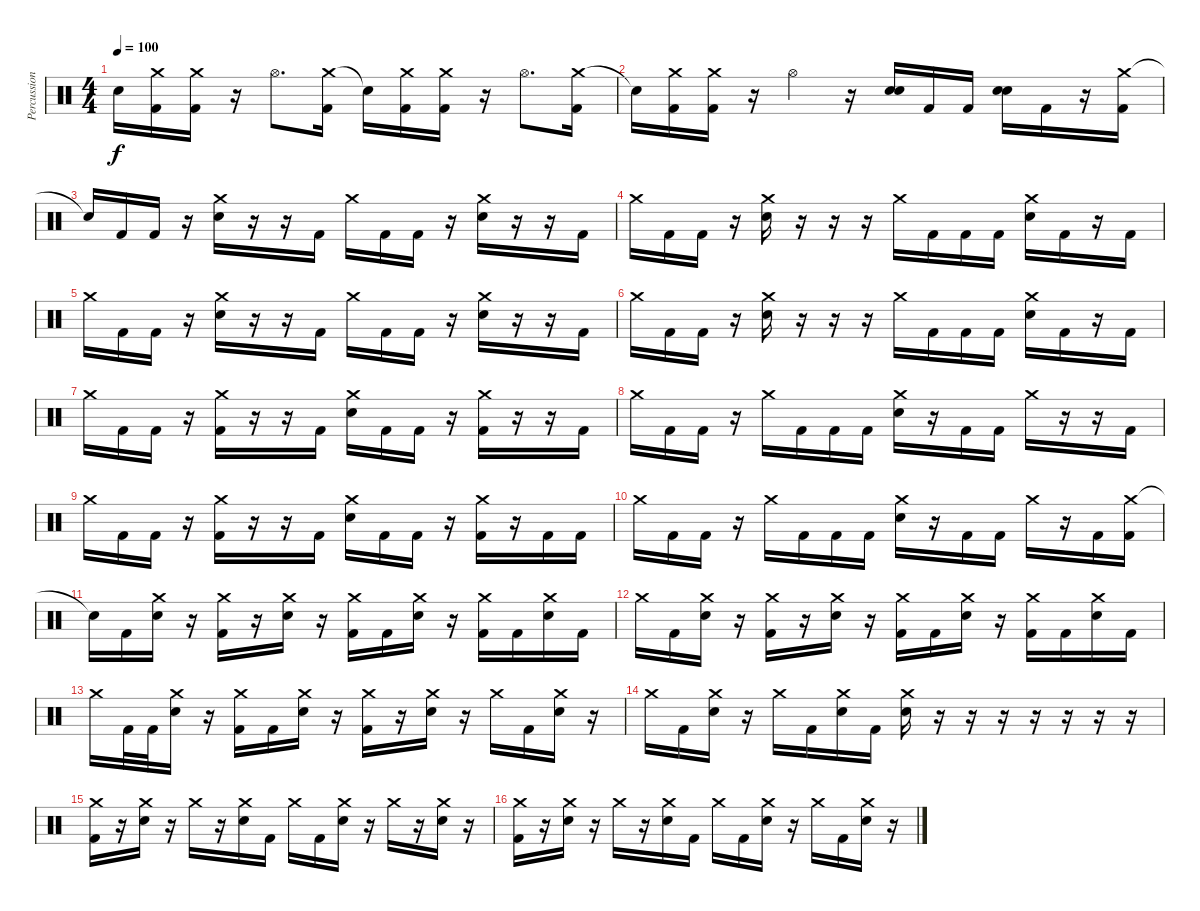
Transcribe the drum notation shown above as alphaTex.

\track ("Percussion" "Percussion") {instrument percussion}
\staff {score}
\articulation defaults
\ts (4 4)
\tempo 100
\clef neutral
\ks c "Snare (hit)"{t}.16{dy f}
("Crash medium (hit)" "Kick (hit) 2").16 ("Crash medium (hit)" "Kick (hit) 2").16 r.16 "Hi-Hat (open)".8{d} ("Crash medium (hit)" "Kick (hit) 2").16 "Snare (hit)"{t}.16 ("Crash medium (hit)" "Kick (hit) 2").16 ("Crash medium (hit)" "Kick (hit) 2").16 r.16 "Hi-Hat (open)".8{d} ("Crash medium (hit)" "Kick (hit) 2").16 |
"Snare (hit)"{t}.16 ("Crash medium (hit)" "Kick (hit) 2").16 ("Crash medium (hit)" "Kick (hit) 2").16 r.16 "Hi-Hat (open)".4 r.16 ("Electric Snare (hit)" "Electric Snare (hit)").16{bu 60} "Kick (hit) 2".16 "Kick (hit) 2".16 ("Electric Snare (hit)" "Electric Snare (hit)").16{bu 60} "Kick (hit) 2".16 r.16 ("Crash medium (hit)" "Kick (hit) 2").16 |
"Snare (hit)"{t}.16 "Kick (hit) 2".16 "Kick (hit) 2".16 r.16 ("Crash medium (hit)" "Electric Snare (hit)").16 r.16 r.16 "Kick (hit) 2".16 "Crash medium (hit)".16 "Kick (hit) 2".16 "Kick (hit) 2".16 r.16 ("Crash medium (hit)" "Electric Snare (hit)").16 r.16 r.16 "Kick (hit) 2".16 |
"Crash medium (hit)".16 "Kick (hit) 2".16 "Kick (hit) 2".16 r.16 ("Crash medium (hit)" "Electric Snare (hit)").16 r.16 r.16 r.16 "Crash medium (hit)".16 "Kick (hit) 2".16 "Kick (hit) 2".16 "Kick (hit) 2".16 ("Crash medium (hit)" "Electric Snare (hit)").16 "Kick (hit) 2".16 r.16 "Kick (hit) 2".16 |
"Crash medium (hit)".16 "Kick (hit) 2".16 "Kick (hit) 2".16 r.16 ("Crash medium (hit)" "Electric Snare (hit)").16 r.16 r.16 "Kick (hit) 2".16 "Crash medium (hit)".16 "Kick (hit) 2".16 "Kick (hit) 2".16 r.16 ("Crash medium (hit)" "Electric Snare (hit)").16 r.16 r.16 "Kick (hit) 2".16 |
"Crash medium (hit)".16 "Kick (hit) 2".16 "Kick (hit) 2".16 r.16 ("Crash medium (hit)" "Electric Snare (hit)").16 r.16 r.16 r.16 "Crash medium (hit)".16 "Kick (hit) 2".16 "Kick (hit) 2".16 "Kick (hit) 2".16 ("Crash medium (hit)" "Electric Snare (hit)").16 "Kick (hit) 2".16 r.16 "Kick (hit) 2".16 |
"Crash medium (hit)".16 "Kick (hit) 2".16 "Kick (hit) 2".16 r.16 ("Crash medium (hit)" "Kick (hit) 2").16 r.16 r.16 "Kick (hit) 2".16 ("Crash medium (hit)" "Electric Snare (hit)").16 "Kick (hit) 2".16 "Kick (hit) 2".16 r.16 ("Crash medium (hit)" "Kick (hit) 2").16 r.16 r.16 "Kick (hit) 2".16 |
"Crash medium (hit)".16 "Kick (hit) 2".16 "Kick (hit) 2".16 r.16 "Crash medium (hit)".16 "Kick (hit) 2".16 "Kick (hit) 2".16 "Kick (hit) 2".16 ("Crash medium (hit)" "Electric Snare (hit)").16 r.16 "Kick (hit) 2".16 "Kick (hit) 2".16 "Crash medium (hit)".16 r.16 r.16 "Kick (hit) 2".16 |
"Crash medium (hit)".16 "Kick (hit) 2".16 "Kick (hit) 2".16 r.16 ("Crash medium (hit)" "Kick (hit) 2").16 r.16 r.16 "Kick (hit) 2".16 ("Crash medium (hit)" "Electric Snare (hit)").16 "Kick (hit) 2".16 "Kick (hit) 2".16 r.16 ("Crash medium (hit)" "Kick (hit) 2").16 r.16 "Kick (hit) 2".16 "Kick (hit) 2".16 |
"Crash medium (hit)".16 "Kick (hit) 2".16 "Kick (hit) 2".16 r.16 "Crash medium (hit)".16 "Kick (hit) 2".16 "Kick (hit) 2".16 "Kick (hit) 2".16 ("Crash medium (hit)" "Electric Snare (hit)").16 r.16 "Kick (hit) 2".16 "Kick (hit) 2".16 "Crash medium (hit)".16 r.16 "Kick (hit) 2".16 ("Crash medium (hit)" "Kick (hit) 2").16 |
"Snare (hit)"{t}.16 "Kick (hit) 2".16 ("Crash medium (hit)" "Electric Snare (hit)").16 r.16 ("Crash medium (hit)" "Kick (hit) 2").16 r.16 ("Crash medium (hit)" "Electric Snare (hit)").16 r.16 ("Crash medium (hit)" "Kick (hit) 2").16 "Kick (hit) 2".16 ("Crash medium (hit)" "Electric Snare (hit)").16 r.16 ("Crash medium (hit)" "Kick (hit) 2").16 "Kick (hit) 2".16 ("Crash medium (hit)" "Electric Snare (hit)").16 "Kick (hit) 2".16 |
"Crash medium (hit)".16 "Kick (hit) 2".16 ("Crash medium (hit)" "Electric Snare (hit)").16 r.16 ("Crash medium (hit)" "Kick (hit) 2").16 r.16 ("Crash medium (hit)" "Electric Snare (hit)").16 r.16 ("Crash medium (hit)" "Kick (hit) 2").16 "Kick (hit) 2".16 ("Crash medium (hit)" "Electric Snare (hit)").16 r.16 ("Crash medium (hit)" "Kick (hit) 2").16 "Kick (hit) 2".16 ("Crash medium (hit)" "Electric Snare (hit)").16 "Kick (hit) 2".16 |
"Crash medium (hit)".16 "Kick (hit) 2".32 "Kick (hit) 2".32 ("Crash medium (hit)" "Electric Snare (hit)").16 r.16 ("Crash medium (hit)" "Kick (hit) 2").16 "Kick (hit) 2".16 ("Crash medium (hit)" "Electric Snare (hit)").16 r.16 ("Crash medium (hit)" "Kick (hit) 2").16 r.16 ("Crash medium (hit)" "Electric Snare (hit)").16 r.16 "Crash medium (hit)".16 "Kick (hit) 2".16 ("Crash medium (hit)" "Electric Snare (hit)").16 r.16 |
"Crash medium (hit)".16 "Kick (hit) 2".16 ("Crash medium (hit)" "Electric Snare (hit)").16 r.16 "Crash medium (hit)".16 "Kick (hit) 2".16 ("Crash medium (hit)" "Electric Snare (hit)").16 "Kick (hit) 2".16 ("Crash medium (hit)" "Electric Snare (hit)").16 r.16 r.16 r.16 r.16 r.16 r.16 r.16 |
("Crash medium (hit)" "Kick (hit) 2").16 r.16 ("Crash medium (hit)" "Electric Snare (hit)").16 r.16 "Crash medium (hit)".16 r.16 ("Crash medium (hit)" "Electric Snare (hit)").16 "Kick (hit) 2".16 "Crash medium (hit)".16 "Kick (hit) 2".16 ("Crash medium (hit)" "Electric Snare (hit)").16 r.16 "Crash medium (hit)".16 r.16 ("Crash medium (hit)" "Electric Snare (hit)").16 r.16 |
("Crash medium (hit)" "Kick (hit) 2").16 r.16 ("Crash medium (hit)" "Electric Snare (hit)").16 r.16 "Crash medium (hit)".16 r.16 ("Crash medium (hit)" "Electric Snare (hit)").16 "Kick (hit) 2".16 "Crash medium (hit)".16 "Kick (hit) 2".16 ("Crash medium (hit)" "Electric Snare (hit)").16 r.16 "Crash medium (hit)".16 "Kick (hit) 2".16 ("Crash medium (hit)" "Electric Snare (hit)").16 r.16
